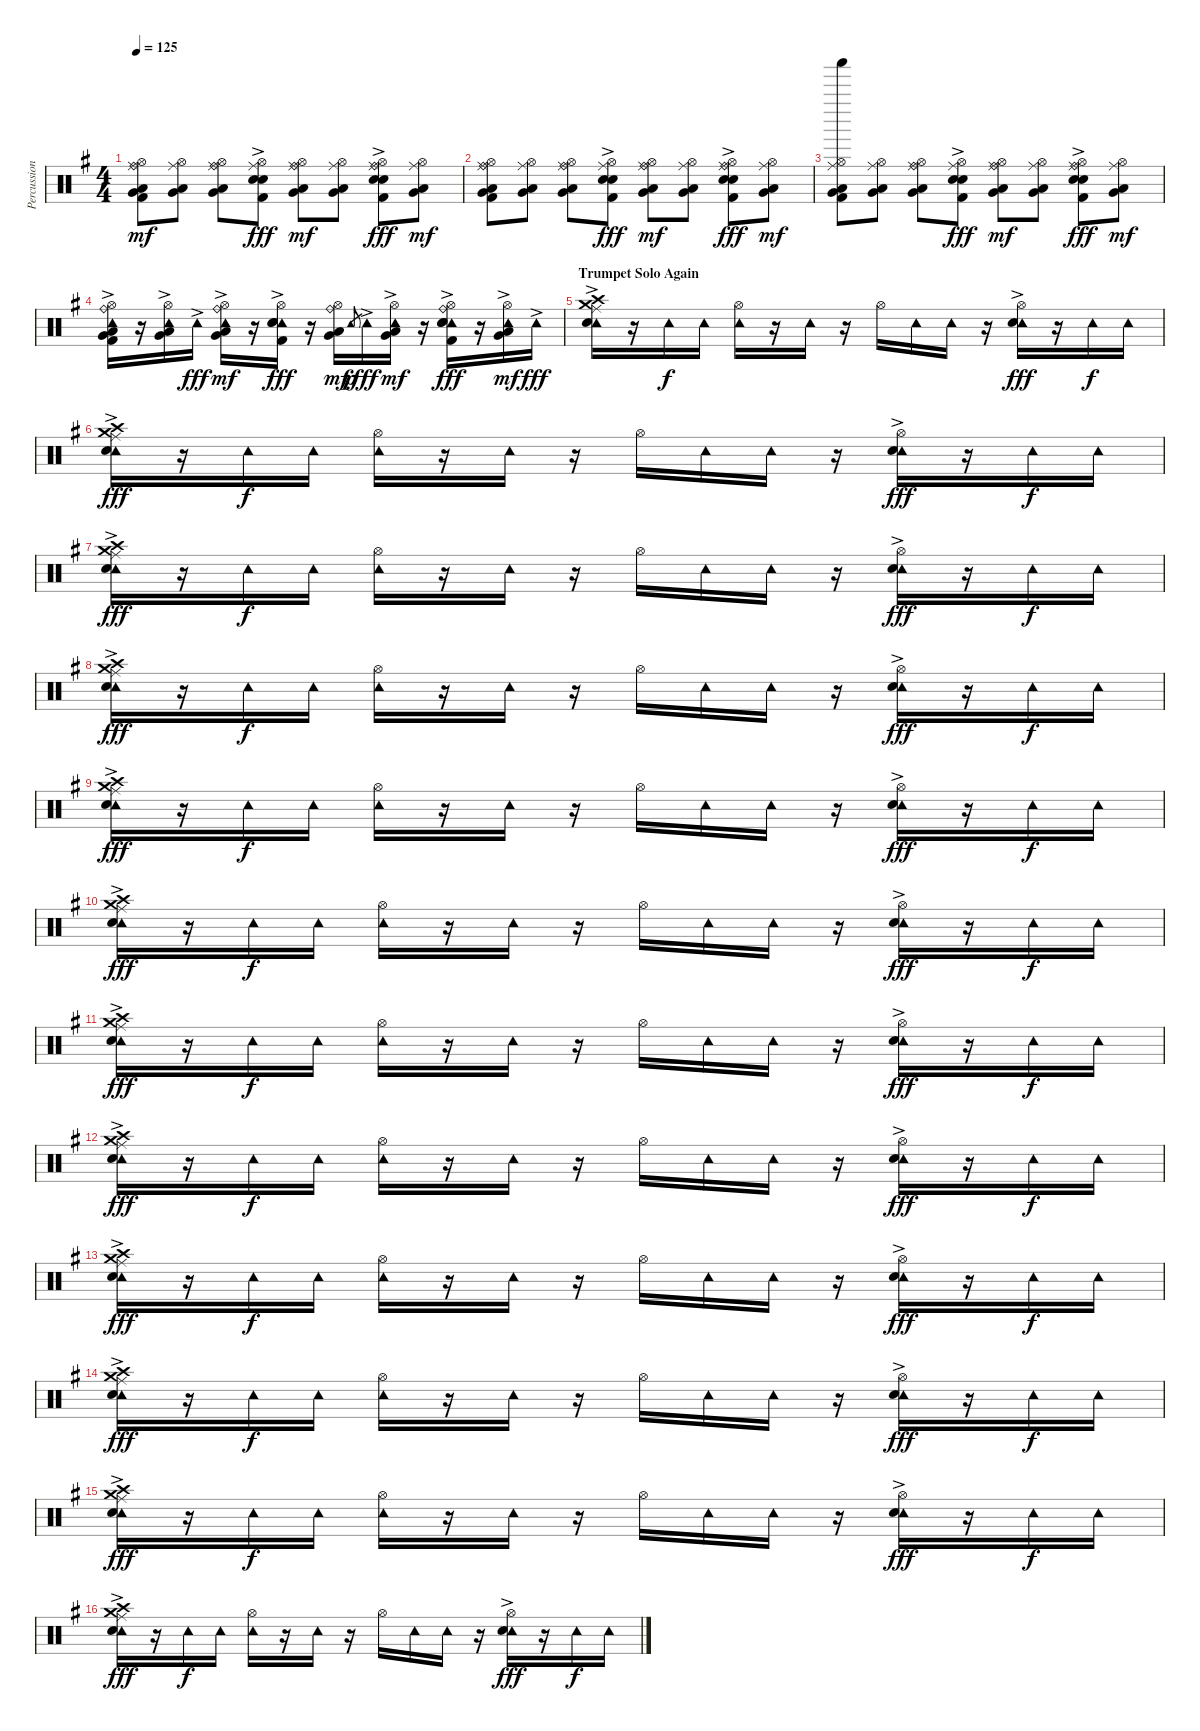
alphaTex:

\track ("Percussion" "Percussion") {instrument percussion}
\staff {score}
\articulation defaults
\ts (4 4)
\tempo 125
\clef neutral
\ks g
("Ride (bell)" "Hi-Hat (open)" "Ride (middle)" "Low Tom (hit)" "Very Low Tom (hit)" "Kick (hit) 2").8{dy mf} ("Hi-Hat (open)" "Ride (middle)" "Low Tom (hit)" "Very Low Tom (hit)").8 ("Ride (bell)" "Hi-Hat (open)" "Ride (middle)" "Low Tom (hit)" "Very Low Tom (hit)").8 ("Hi-Hat (open)" "Ride (middle)" "Electric Snare (hit)"{ac} "Snare (hit) 2"{ac} "Kick (hit) 2").8{dy fff} ("Ride (bell)" "Hi-Hat (open)" "Ride (middle)" "Low Tom (hit)" "Very Low Tom (hit)").8{dy mf} ("Hi-Hat (open)" "Ride (middle)" "Low Tom (hit)" "Very Low Tom (hit)").8 ("Ride (bell)" "Hi-Hat (open)" "Ride (middle)" "Electric Snare (hit)"{ac} "Snare (hit) 2"{ac} "Kick (hit) 2").8{dy fff} ("Hi-Hat (open)" "Ride (middle)" "Low Tom (hit)" "Very Low Tom (hit)").8{dy mf} |
("Ride (bell)" "Hi-Hat (open)" "Ride (middle)" "Low Tom (hit)" "Very Low Tom (hit)" "Kick (hit) 2").8 ("Hi-Hat (open)" "Ride (middle)" "Low Tom (hit)" "Very Low Tom (hit)").8 ("Ride (bell)" "Hi-Hat (open)" "Ride (middle)" "Low Tom (hit)" "Very Low Tom (hit)").8 ("Hi-Hat (open)" "Ride (middle)" "Electric Snare (hit)"{ac} "Snare (hit) 2"{ac} "Kick (hit) 2").8{dy fff} ("Ride (bell)" "Hi-Hat (open)" "Ride (middle)" "Low Tom (hit)" "Very Low Tom (hit)").8{dy mf} ("Hi-Hat (open)" "Ride (middle)" "Low Tom (hit)" "Very Low Tom (hit)").8 ("Ride (bell)" "Hi-Hat (open)" "Ride (middle)" "Electric Snare (hit)"{ac} "Snare (hit) 2"{ac} "Kick (hit) 2").8{dy fff} ("Hi-Hat (open)" "Ride (middle)" "Low Tom (hit)" "Very Low Tom (hit)").8{dy mf} |
("Shaker (hit)" "Hi-Hat (open)" "Ride (middle)" "Low Tom (hit)" "Very Low Tom (hit)" "Kick (hit) 2").8 ("Hi-Hat (open)" "Ride (middle)" "Low Tom (hit)" "Very Low Tom (hit)").8 ("Ride (bell)" "Hi-Hat (open)" "Ride (middle)" "Low Tom (hit)" "Very Low Tom (hit)").8 ("Hi-Hat (open)" "Ride (middle)" "Electric Snare (hit)"{ac} "Snare (hit) 2"{ac} "Kick (hit) 2").8{dy fff} ("Ride (bell)" "Hi-Hat (open)" "Ride (middle)" "Low Tom (hit)" "Very Low Tom (hit)").8{dy mf} ("Hi-Hat (open)" "Ride (middle)" "Low Tom (hit)" "Very Low Tom (hit)").8 ("Ride (bell)" "Hi-Hat (open)" "Ride (middle)" "Electric Snare (hit)"{ac} "Snare (hit) 2"{ac} "Kick (hit) 2").8{dy fff} ("Hi-Hat (open)" "Ride (middle)" "Low Tom (hit)" "Very Low Tom (hit)").8{dy mf} |
("Ride (bell)" "Hi-Hat (open)" "Tambourine (hit)"{ac} "Low Tom (hit)" "Very Low Tom (hit)" "Kick (hit) 2").16 r.16 ("Hi-Hat (open)" "Tambourine (hit)"{ac} "Low Tom (hit)" "Very Low Tom (hit)").16 "Tambourine (hit)"{ac}.16{dy fff} ("Ride (bell)" "Hi-Hat (open)" "Tambourine (hit)"{ac} "Low Tom (hit)" "Very Low Tom (hit)").16{dy mf} r.16 ("Hi-Hat (open)" "Tambourine (hit)"{ac} "Electric Snare (hit)"{ac} "Snare (hit) 2"{ac} "Kick (hit) 2").16{dy fff} r.16 ("Ride (bell)" "Hi-Hat (open)" "Low Tom (hit)" "Very Low Tom (hit)").16{dy mf} "Tambourine (hit)".8{gr dy p} "Tambourine (hit)"{ac}.16{dy fff} ("Hi-Hat (open)" "Tambourine (hit)"{ac} "Low Tom (hit)" "Very Low Tom (hit)").16{dy mf} r.16 ("Ride (bell)" "Hi-Hat (open)" "Tambourine (hit)"{ac} "Electric Snare (hit)"{ac} "Snare (hit) 2"{ac} "Kick (hit) 2").16{dy fff} r.16 ("Hi-Hat (open)" "Tambourine (hit)"{ac} "Low Tom (hit)" "Very Low Tom (hit)").16{dy mf} "Tambourine (hit)"{ac}.16{dy fff} |
\section ("" "Trumpet Solo Again")
("Ride (middle)"{ac} "Crash medium (hit)" "Tambourine (hit)" "Snare (hit) 2" "Crash high (hit)").16 r.16 "Tambourine (hit)".16{dy f} "Tambourine (hit)".16 ("Hi-Hat (open)" "Tambourine (hit)").16 r.16 "Tambourine (hit)".16 r.16 "Hi-Hat (open)".16 "Tambourine (hit)".16 "Tambourine (hit)".16 r.16 ("Hi-Hat (open)"{ac} "Tambourine (hit)" "Snare (hit) 2").16{dy fff} r.16 "Tambourine (hit)".16{dy f} "Tambourine (hit)".16 |
("Ride (middle)"{ac} "Crash medium (hit)" "Tambourine (hit)" "Snare (hit) 2" "Crash high (hit)").16{dy fff} r.16 "Tambourine (hit)".16{dy f} "Tambourine (hit)".16 ("Hi-Hat (open)" "Tambourine (hit)").16 r.16 "Tambourine (hit)".16 r.16 "Hi-Hat (open)".16 "Tambourine (hit)".16 "Tambourine (hit)".16 r.16 ("Hi-Hat (open)"{ac} "Tambourine (hit)" "Snare (hit) 2").16{dy fff} r.16 "Tambourine (hit)".16{dy f} "Tambourine (hit)".16 |
("Ride (middle)"{ac} "Crash medium (hit)" "Tambourine (hit)" "Snare (hit) 2" "Crash high (hit)").16{dy fff} r.16 "Tambourine (hit)".16{dy f} "Tambourine (hit)".16 ("Hi-Hat (open)" "Tambourine (hit)").16 r.16 "Tambourine (hit)".16 r.16 "Hi-Hat (open)".16 "Tambourine (hit)".16 "Tambourine (hit)".16 r.16 ("Hi-Hat (open)"{ac} "Tambourine (hit)" "Snare (hit) 2").16{dy fff} r.16 "Tambourine (hit)".16{dy f} "Tambourine (hit)".16 |
("Ride (middle)"{ac} "Crash medium (hit)" "Tambourine (hit)" "Snare (hit) 2" "Crash high (hit)").16{dy fff} r.16 "Tambourine (hit)".16{dy f} "Tambourine (hit)".16 ("Hi-Hat (open)" "Tambourine (hit)").16 r.16 "Tambourine (hit)".16 r.16 "Hi-Hat (open)".16 "Tambourine (hit)".16 "Tambourine (hit)".16 r.16 ("Hi-Hat (open)"{ac} "Tambourine (hit)" "Snare (hit) 2").16{dy fff} r.16 "Tambourine (hit)".16{dy f} "Tambourine (hit)".16 |
("Ride (middle)"{ac} "Crash medium (hit)" "Tambourine (hit)" "Snare (hit) 2" "Crash high (hit)").16{dy fff} r.16 "Tambourine (hit)".16{dy f} "Tambourine (hit)".16 ("Hi-Hat (open)" "Tambourine (hit)").16 r.16 "Tambourine (hit)".16 r.16 "Hi-Hat (open)".16 "Tambourine (hit)".16 "Tambourine (hit)".16 r.16 ("Hi-Hat (open)"{ac} "Tambourine (hit)" "Snare (hit) 2").16{dy fff} r.16 "Tambourine (hit)".16{dy f} "Tambourine (hit)".16 |
("Ride (middle)"{ac} "Crash medium (hit)" "Tambourine (hit)" "Snare (hit) 2" "Crash high (hit)").16{dy fff} r.16 "Tambourine (hit)".16{dy f} "Tambourine (hit)".16 ("Hi-Hat (open)" "Tambourine (hit)").16 r.16 "Tambourine (hit)".16 r.16 "Hi-Hat (open)".16 "Tambourine (hit)".16 "Tambourine (hit)".16 r.16 ("Hi-Hat (open)"{ac} "Tambourine (hit)" "Snare (hit) 2").16{dy fff} r.16 "Tambourine (hit)".16{dy f} "Tambourine (hit)".16 |
("Ride (middle)"{ac} "Crash medium (hit)" "Tambourine (hit)" "Snare (hit) 2" "Crash high (hit)").16{dy fff} r.16 "Tambourine (hit)".16{dy f} "Tambourine (hit)".16 ("Hi-Hat (open)" "Tambourine (hit)").16 r.16 "Tambourine (hit)".16 r.16 "Hi-Hat (open)".16 "Tambourine (hit)".16 "Tambourine (hit)".16 r.16 ("Hi-Hat (open)"{ac} "Tambourine (hit)" "Snare (hit) 2").16{dy fff} r.16 "Tambourine (hit)".16{dy f} "Tambourine (hit)".16 |
("Ride (middle)"{ac} "Crash medium (hit)" "Tambourine (hit)" "Snare (hit) 2" "Crash high (hit)").16{dy fff} r.16 "Tambourine (hit)".16{dy f} "Tambourine (hit)".16 ("Hi-Hat (open)" "Tambourine (hit)").16 r.16 "Tambourine (hit)".16 r.16 "Hi-Hat (open)".16 "Tambourine (hit)".16 "Tambourine (hit)".16 r.16 ("Hi-Hat (open)"{ac} "Tambourine (hit)" "Snare (hit) 2").16{dy fff} r.16 "Tambourine (hit)".16{dy f} "Tambourine (hit)".16 |
("Ride (middle)"{ac} "Crash medium (hit)" "Tambourine (hit)" "Snare (hit) 2" "Crash high (hit)").16{dy fff} r.16 "Tambourine (hit)".16{dy f} "Tambourine (hit)".16 ("Hi-Hat (open)" "Tambourine (hit)").16 r.16 "Tambourine (hit)".16 r.16 "Hi-Hat (open)".16 "Tambourine (hit)".16 "Tambourine (hit)".16 r.16 ("Hi-Hat (open)"{ac} "Tambourine (hit)" "Snare (hit) 2").16{dy fff} r.16 "Tambourine (hit)".16{dy f} "Tambourine (hit)".16 |
("Ride (middle)"{ac} "Crash medium (hit)" "Tambourine (hit)" "Snare (hit) 2" "Crash high (hit)").16{dy fff} r.16 "Tambourine (hit)".16{dy f} "Tambourine (hit)".16 ("Hi-Hat (open)" "Tambourine (hit)").16 r.16 "Tambourine (hit)".16 r.16 "Hi-Hat (open)".16 "Tambourine (hit)".16 "Tambourine (hit)".16 r.16 ("Hi-Hat (open)"{ac} "Tambourine (hit)" "Snare (hit) 2").16{dy fff} r.16 "Tambourine (hit)".16{dy f} "Tambourine (hit)".16 |
("Ride (middle)"{ac} "Crash medium (hit)" "Tambourine (hit)" "Snare (hit) 2" "Crash high (hit)").16{dy fff} r.16 "Tambourine (hit)".16{dy f} "Tambourine (hit)".16 ("Hi-Hat (open)" "Tambourine (hit)").16 r.16 "Tambourine (hit)".16 r.16 "Hi-Hat (open)".16 "Tambourine (hit)".16 "Tambourine (hit)".16 r.16 ("Hi-Hat (open)"{ac} "Tambourine (hit)" "Snare (hit) 2").16{dy fff} r.16 "Tambourine (hit)".16{dy f} "Tambourine (hit)".16 |
("Ride (middle)"{ac} "Crash medium (hit)" "Tambourine (hit)" "Snare (hit) 2" "Crash high (hit)").16{dy fff} r.16 "Tambourine (hit)".16{dy f} "Tambourine (hit)".16 ("Hi-Hat (open)" "Tambourine (hit)").16 r.16 "Tambourine (hit)".16 r.16 "Hi-Hat (open)".16 "Tambourine (hit)".16 "Tambourine (hit)".16 r.16 ("Hi-Hat (open)"{ac} "Tambourine (hit)" "Snare (hit) 2").16{dy fff} r.16 "Tambourine (hit)".16{dy f} "Tambourine (hit)".16
